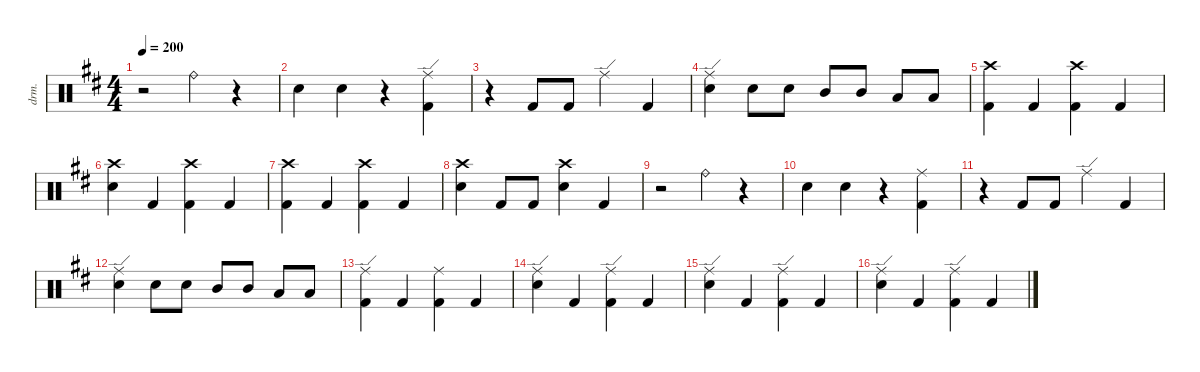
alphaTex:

\defaultSystemsLayout 4
\hideDynamics
\bracketExtendMode nobrackets
\otherSystemsTrackNameOrientation horizontal
\track ("Drums" "drm.") {instrument percussion}
\staff {score}
\articulation defaults
\ts (4 4)
\tempo 200
\clef neutral
\ks d
r.2{dy ff beam Down} "Ride (bell)"{acc forcenatural}.4{beam Down} r.4{beam Down} |
"Snare (hit) 2"{acc forcenatural}.4{beam Down} "Snare (hit) 2"{acc forcenatural}.4{beam Down} r.4{beam Down} ("Kick (hit) 2"{acc forcenatural} "Ride (edge)"{acc #}).4{beam Down} |
r.4{beam Down} "Kick (hit) 2"{acc forcenatural}.8{beam Up} "Kick (hit) 2"{acc forcenatural}.8{beam Up} "Ride (edge)"{acc #}.4{beam Down} "Kick (hit) 2"{acc forcenatural}.4{beam Up} |
("Ride (edge)"{acc #} "Snare (hit) 2"{acc forcenatural}).4{beam Down} "Snare (hit) 2"{acc forcenatural}.8{beam Down} "Snare (hit) 2"{acc forcenatural}.8{beam Down} "Mid Tom (hit)"{acc forcenatural}.8{beam Up} "Mid Tom (hit)"{acc forcenatural}.8{beam Up} "Low Tom (hit)"{acc forcenatural}.8{beam Up} "Low Tom (hit)"{acc forcenatural}.8{beam Up} |
("Kick (hit) 2"{acc forcenatural} "Crash high (hit)"{acc #}).4{beam Down} "Kick (hit) 2"{acc forcenatural}.4{beam Up} ("Kick (hit) 2"{acc forcenatural} "Crash high (hit)"{acc #}).4{beam Down} "Kick (hit) 2"{acc forcenatural}.4{beam Up} |
("Snare (hit) 2"{acc forcenatural} "Crash high (hit)"{acc #}).4{beam Down} "Kick (hit) 2"{acc forcenatural}.4{beam Up} ("Kick (hit) 2"{acc forcenatural} "Crash high (hit)"{acc #}).4{beam Down} "Kick (hit) 2"{acc forcenatural}.4{beam Up} |
("Kick (hit) 2"{acc forcenatural} "Crash high (hit)"{acc #}).4{beam Down} "Kick (hit) 2"{acc forcenatural}.4{beam Up} ("Kick (hit) 2"{acc forcenatural} "Crash high (hit)"{acc #}).4{beam Down} "Kick (hit) 2"{acc forcenatural}.4{beam Up} |
("Snare (hit) 2"{acc forcenatural} "Crash high (hit)"{acc #}).4{beam Down} "Kick (hit) 2"{acc forcenatural}.8{beam Up} "Kick (hit) 2"{acc forcenatural}.8{beam Up} ("Snare (hit) 2"{acc forcenatural} "Crash high (hit)"{acc #}).4{beam Down} "Kick (hit) 2"{acc forcenatural}.4{beam Up} |
r.2{beam Down} "Ride (bell)"{acc forcenatural}.4{beam Down} r.4{beam Down} |
"Snare (hit) 2"{acc forcenatural}.4{beam Down} "Snare (hit) 2"{acc forcenatural}.4{beam Down} r.4{beam Down} ("Kick (hit) 2"{acc forcenatural} "Ride (middle)"{acc #}).4{beam Down} |
r.4{beam Down} "Kick (hit) 2"{acc forcenatural}.8{beam Up} "Kick (hit) 2"{acc forcenatural}.8{beam Up} "Ride (edge)"{acc #}.4{beam Down} "Kick (hit) 2"{acc forcenatural}.4{beam Up} |
("Ride (edge)"{acc #} "Snare (hit) 2"{acc forcenatural}).4{beam Down} "Snare (hit) 2"{acc forcenatural}.8{beam Down} "Snare (hit) 2"{acc forcenatural}.8{beam Down} "Mid Tom (hit)"{acc forcenatural}.8{beam Up} "Mid Tom (hit)"{acc forcenatural}.8{beam Up} "Low Tom (hit)"{acc forcenatural}.8{beam Up} "Low Tom (hit)"{acc forcenatural}.8{beam Up} |
("Kick (hit) 2"{acc forcenatural} "Ride (edge)"{acc #}).4{beam Down} "Kick (hit) 2"{acc forcenatural}.4{beam Up} ("Kick (hit) 2"{acc forcenatural} "Ride (middle)"{acc #}).4{beam Down} "Kick (hit) 2"{acc forcenatural}.4{beam Up} |
("Snare (hit) 2"{acc forcenatural} "Ride (edge)"{acc #}).4{beam Down} "Kick (hit) 2"{acc forcenatural}.4{beam Up} ("Kick (hit) 2"{acc forcenatural} "Ride (edge)"{acc #}).4{beam Down} "Kick (hit) 2"{acc forcenatural}.4{beam Up} |
("Snare (hit) 2"{acc forcenatural} "Ride (edge)"{acc #}).4{beam Down} "Kick (hit) 2"{acc forcenatural}.4{beam Up} ("Kick (hit) 2"{acc forcenatural} "Ride (edge)"{acc #}).4{beam Down} "Kick (hit) 2"{acc forcenatural}.4{beam Up} |
("Snare (hit) 2"{acc forcenatural} "Ride (edge)"{acc #}).4{beam Down} "Kick (hit) 2"{acc forcenatural}.4{beam Up} ("Kick (hit) 2"{acc forcenatural} "Ride (edge)"{acc #}).4{beam Down} "Kick (hit) 2"{acc forcenatural}.4{beam Up}
